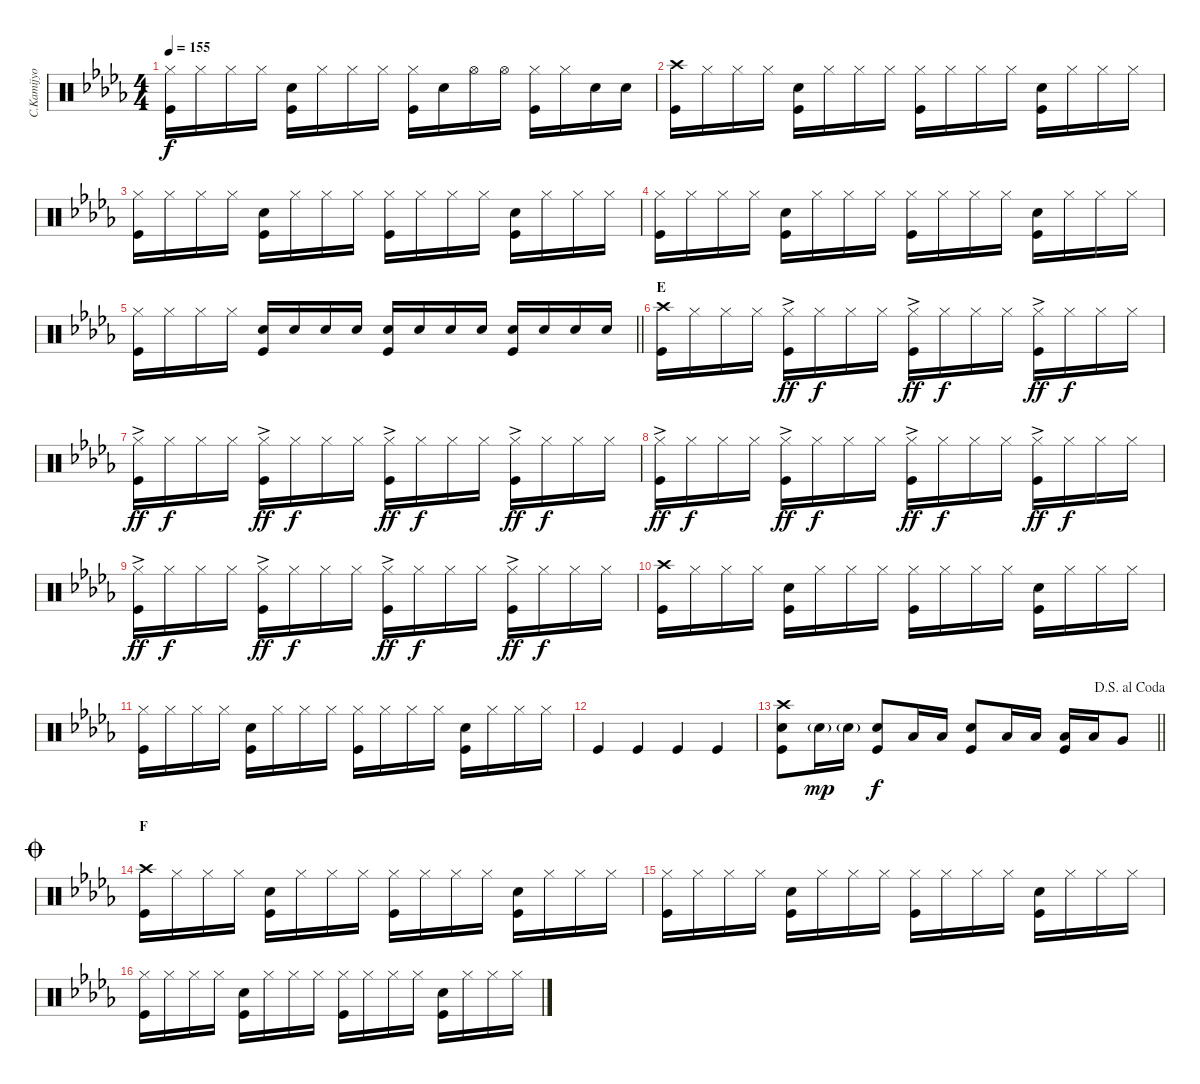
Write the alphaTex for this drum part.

\track ("C.Kamijyo DRUMS" "C.Kamijyo ") {instrument percussion}
\staff {score}
\articulation defaults
\ts (4 4)
\tempo 155
\clef neutral
\ks db
("Hi-Hat (closed)" "Kick (hit)").16{dy f} "Hi-Hat (closed)".16 "Hi-Hat (closed)".16 "Hi-Hat (closed)".16 ("Snare (hit) 2" "Kick (hit)").16 "Hi-Hat (closed)".16 "Hi-Hat (closed)".16 "Hi-Hat (closed)".16 ("Hi-Hat (closed)" "Kick (hit)").16 "Snare (hit) 2".16 "Hi-Hat (open)".16 "Hi-Hat (open)".16 ("Hi-Hat (closed)" "Kick (hit)").16 "Hi-Hat (closed)".16 "Snare (hit) 2".16 "Snare (hit) 2".16 |
("Crash high (hit)" "Kick (hit)").16 "Hi-Hat (closed)".16 "Hi-Hat (closed)".16 "Hi-Hat (closed)".16 ("Snare (hit) 2" "Kick (hit)").16 "Hi-Hat (closed)".16 "Hi-Hat (closed)".16 "Hi-Hat (closed)".16 ("Hi-Hat (closed)" "Kick (hit)").16 "Hi-Hat (closed)".16 "Hi-Hat (closed)".16 "Hi-Hat (closed)".16 ("Snare (hit) 2" "Kick (hit)").16 "Hi-Hat (closed)".16 "Hi-Hat (closed)".16 "Hi-Hat (closed)".16 |
("Hi-Hat (closed)" "Kick (hit)").16 "Hi-Hat (closed)".16 "Hi-Hat (closed)".16 "Hi-Hat (closed)".16 ("Snare (hit) 2" "Kick (hit)").16 "Hi-Hat (closed)".16 "Hi-Hat (closed)".16 "Hi-Hat (closed)".16 ("Hi-Hat (closed)" "Kick (hit)").16 "Hi-Hat (closed)".16 "Hi-Hat (closed)".16 "Hi-Hat (closed)".16 ("Snare (hit) 2" "Kick (hit)").16 "Hi-Hat (closed)".16 "Hi-Hat (closed)".16 "Hi-Hat (closed)".16 |
("Hi-Hat (closed)" "Kick (hit)").16 "Hi-Hat (closed)".16 "Hi-Hat (closed)".16 "Hi-Hat (closed)".16 ("Snare (hit) 2" "Kick (hit)").16 "Hi-Hat (closed)".16 "Hi-Hat (closed)".16 "Hi-Hat (closed)".16 ("Hi-Hat (closed)" "Kick (hit)").16 "Hi-Hat (closed)".16 "Hi-Hat (closed)".16 "Hi-Hat (closed)".16 ("Snare (hit) 2" "Kick (hit)").16 "Hi-Hat (closed)".16 "Hi-Hat (closed)".16 "Hi-Hat (closed)".16 |
\barLineRight lightlight
("Hi-Hat (closed)" "Kick (hit)").16 "Hi-Hat (closed)".16 "Hi-Hat (closed)".16 "Hi-Hat (closed)".16 ("Snare (hit) 2" "Kick (hit)").16 "Snare (hit) 2".16 "Snare (hit) 2".16 "Snare (hit) 2".16 ("Snare (hit) 2" "Kick (hit)").16 "Snare (hit) 2".16 "Snare (hit) 2".16 "Snare (hit) 2".16 ("Snare (hit) 2" "Kick (hit)").16 "Snare (hit) 2".16 "Snare (hit) 2".16 "Snare (hit) 2".16 |
\section ("" "E")
("Crash high (hit)" "Kick (hit)").16 "Hi-Hat (closed)".16 "Hi-Hat (closed)".16 "Hi-Hat (closed)".16 ("Hi-Hat (closed)"{ac} "Kick (hit)").16{dy ff} "Hi-Hat (closed)".16{dy f} "Hi-Hat (closed)".16 "Hi-Hat (closed)".16 ("Hi-Hat (closed)"{ac} "Kick (hit)").16{dy ff} "Hi-Hat (closed)".16{dy f} "Hi-Hat (closed)".16 "Hi-Hat (closed)".16 ("Hi-Hat (closed)"{ac} "Kick (hit)").16{dy ff} "Hi-Hat (closed)".16{dy f} "Hi-Hat (closed)".16 "Hi-Hat (closed)".16 |
("Hi-Hat (closed)"{ac} "Kick (hit)").16{dy ff} "Hi-Hat (closed)".16{dy f} "Hi-Hat (closed)".16 "Hi-Hat (closed)".16 ("Hi-Hat (closed)"{ac} "Kick (hit)").16{dy ff} "Hi-Hat (closed)".16{dy f} "Hi-Hat (closed)".16 "Hi-Hat (closed)".16 ("Hi-Hat (closed)"{ac} "Kick (hit)").16{dy ff} "Hi-Hat (closed)".16{dy f} "Hi-Hat (closed)".16 "Hi-Hat (closed)".16 ("Hi-Hat (closed)"{ac} "Kick (hit)").16{dy ff} "Hi-Hat (closed)".16{dy f} "Hi-Hat (closed)".16 "Hi-Hat (closed)".16 |
("Hi-Hat (closed)"{ac} "Kick (hit)").16{dy ff} "Hi-Hat (closed)".16{dy f} "Hi-Hat (closed)".16 "Hi-Hat (closed)".16 ("Hi-Hat (closed)"{ac} "Kick (hit)").16{dy ff} "Hi-Hat (closed)".16{dy f} "Hi-Hat (closed)".16 "Hi-Hat (closed)".16 ("Hi-Hat (closed)"{ac} "Kick (hit)").16{dy ff} "Hi-Hat (closed)".16{dy f} "Hi-Hat (closed)".16 "Hi-Hat (closed)".16 ("Hi-Hat (closed)"{ac} "Kick (hit)").16{dy ff} "Hi-Hat (closed)".16{dy f} "Hi-Hat (closed)".16 "Hi-Hat (closed)".16 |
("Hi-Hat (closed)"{ac} "Kick (hit)").16{dy ff} "Hi-Hat (closed)".16{dy f} "Hi-Hat (closed)".16 "Hi-Hat (closed)".16 ("Hi-Hat (closed)"{ac} "Kick (hit)").16{dy ff} "Hi-Hat (closed)".16{dy f} "Hi-Hat (closed)".16 "Hi-Hat (closed)".16 ("Hi-Hat (closed)"{ac} "Kick (hit)").16{dy ff} "Hi-Hat (closed)".16{dy f} "Hi-Hat (closed)".16 "Hi-Hat (closed)".16 ("Hi-Hat (closed)"{ac} "Kick (hit)").16{dy ff} "Hi-Hat (closed)".16{dy f} "Hi-Hat (closed)".16 "Hi-Hat (closed)".16 |
("Crash high (hit)" "Kick (hit)").16 "Hi-Hat (closed)".16 "Hi-Hat (closed)".16 "Hi-Hat (closed)".16 ("Snare (hit) 2" "Kick (hit)").16 "Hi-Hat (closed)".16 "Hi-Hat (closed)".16 "Hi-Hat (closed)".16 ("Hi-Hat (closed)" "Kick (hit)").16 "Hi-Hat (closed)".16 "Hi-Hat (closed)".16 "Hi-Hat (closed)".16 ("Snare (hit) 2" "Kick (hit)").16 "Hi-Hat (closed)".16 "Hi-Hat (closed)".16 "Hi-Hat (closed)".16 |
("Hi-Hat (closed)" "Kick (hit)").16 "Hi-Hat (closed)".16 "Hi-Hat (closed)".16 "Hi-Hat (closed)".16 ("Snare (hit) 2" "Kick (hit)").16 "Hi-Hat (closed)".16 "Hi-Hat (closed)".16 "Hi-Hat (closed)".16 ("Hi-Hat (closed)" "Kick (hit)").16 "Hi-Hat (closed)".16 "Hi-Hat (closed)".16 "Hi-Hat (closed)".16 ("Snare (hit) 2" "Kick (hit)").16 "Hi-Hat (closed)".16 "Hi-Hat (closed)".16 "Hi-Hat (closed)".16 |
"Kick (hit)".4 "Kick (hit)".4 "Kick (hit)".4 "Kick (hit)".4 |
\jump dalsegnoalcoda
\barLineRight lightlight
("Crash high (hit)" "Snare (hit) 2" "Kick (hit)").8 "Snare (hit) 2"{g}.16{dy mp} "Snare (hit) 2"{g}.16 ("Snare (hit) 2" "Kick (hit)").8{dy f} "Low Tom (hit)".16 "Low Tom (hit)".16 ("Snare (hit) 2" "Kick (hit)").8 "Low Tom (hit)".16 "Low Tom (hit)".16 ("Low Tom (hit)" "Kick (hit)").16 "Low Tom (hit)".16 "Very Low Tom (hit)".8 |
\section ("" "F")
\jump coda
("Crash high (hit)" "Kick (hit)").16 "Hi-Hat (closed)".16 "Hi-Hat (closed)".16 "Hi-Hat (closed)".16 ("Snare (hit) 2" "Kick (hit)").16 "Hi-Hat (closed)".16 "Hi-Hat (closed)".16 "Hi-Hat (closed)".16 ("Hi-Hat (closed)" "Kick (hit)").16 "Hi-Hat (closed)".16 "Hi-Hat (closed)".16 "Hi-Hat (closed)".16 ("Snare (hit) 2" "Kick (hit)").16 "Hi-Hat (closed)".16 "Hi-Hat (closed)".16 "Hi-Hat (closed)".16 |
("Hi-Hat (closed)" "Kick (hit)").16 "Hi-Hat (closed)".16 "Hi-Hat (closed)".16 "Hi-Hat (closed)".16 ("Snare (hit) 2" "Kick (hit)").16 "Hi-Hat (closed)".16 "Hi-Hat (closed)".16 "Hi-Hat (closed)".16 ("Hi-Hat (closed)" "Kick (hit)").16 "Hi-Hat (closed)".16 "Hi-Hat (closed)".16 "Hi-Hat (closed)".16 ("Snare (hit) 2" "Kick (hit)").16 "Hi-Hat (closed)".16 "Hi-Hat (closed)".16 "Hi-Hat (closed)".16 |
("Hi-Hat (closed)" "Kick (hit)").16 "Hi-Hat (closed)".16 "Hi-Hat (closed)".16 "Hi-Hat (closed)".16 ("Snare (hit) 2" "Kick (hit)").16 "Hi-Hat (closed)".16 "Hi-Hat (closed)".16 "Hi-Hat (closed)".16 ("Hi-Hat (closed)" "Kick (hit)").16 "Hi-Hat (closed)".16 "Hi-Hat (closed)".16 "Hi-Hat (closed)".16 ("Snare (hit) 2" "Kick (hit)").16 "Hi-Hat (closed)".16 "Hi-Hat (closed)".16 "Hi-Hat (closed)".16
